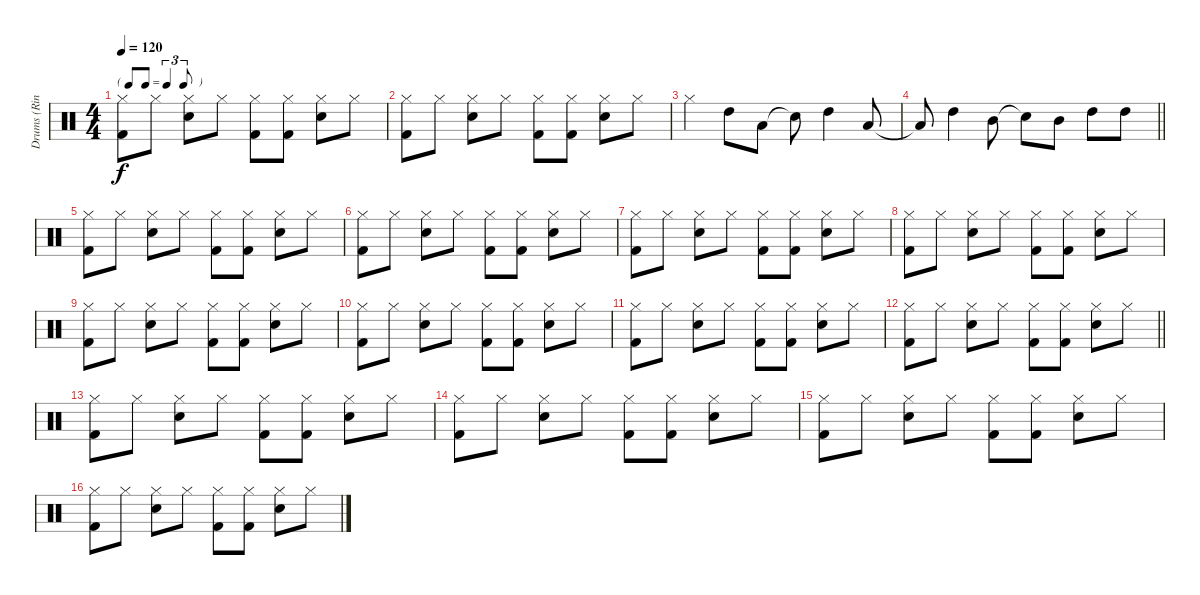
\track ("Drums (Ringo Starr)" "Drums (Rin") {instrument percussion}
\staff {score}
\articulation defaults
\ts (4 4)
\tf triplet8th
\tempo 120
\clef neutral
\ks c
("Hi-Hat (closed)" "Kick (hit) 2").8{dy f} "Hi-Hat (closed)".8 ("Hi-Hat (closed)" "Snare (hit) 2").8 "Hi-Hat (closed)".8 ("Hi-Hat (closed)" "Kick (hit) 2").8 ("Hi-Hat (closed)" "Kick (hit) 2").8 ("Hi-Hat (closed)" "Snare (hit) 2").8 "Hi-Hat (closed)".8 |
("Hi-Hat (closed)" "Kick (hit) 2").8 "Hi-Hat (closed)".8 ("Hi-Hat (closed)" "Snare (hit) 2").8 "Hi-Hat (closed)".8 ("Hi-Hat (closed)" "Kick (hit) 2").8 ("Hi-Hat (closed)" "Kick (hit) 2").8 ("Hi-Hat (closed)" "Snare (hit) 2").8 "Hi-Hat (closed)".8 |
"Hi-Hat (closed)".4 "High Tom (hit)".8 "Low Tom (hit)".8 "Snare (hit)"{t}.8 "High Tom (hit)".4 "Low Tom (hit)".8 |
\barLineRight lightlight "Low Tom (hit)"{t}.8 "High Tom (hit)".4 "Mid Tom (hit)".8 "Snare (hit)"{t}.8 "Mid Tom (hit)".8 "High Tom (hit)".8 "High Tom (hit)".8
|
("Hi-Hat (closed)" "Kick (hit) 2").8 "Hi-Hat (closed)".8 ("Hi-Hat (closed)" "Snare (hit) 2").8 "Hi-Hat (closed)".8 ("Hi-Hat (closed)" "Kick (hit) 2").8 ("Hi-Hat (closed)" "Kick (hit) 2").8 ("Hi-Hat (closed)" "Snare (hit) 2").8 "Hi-Hat (closed)".8 |
("Hi-Hat (closed)" "Kick (hit) 2").8 "Hi-Hat (closed)".8 ("Hi-Hat (closed)" "Snare (hit) 2").8 "Hi-Hat (closed)".8 ("Hi-Hat (closed)" "Kick (hit) 2").8 ("Hi-Hat (closed)" "Kick (hit) 2").8 ("Hi-Hat (closed)" "Snare (hit) 2").8 "Hi-Hat (closed)".8 |
("Hi-Hat (closed)" "Kick (hit) 2").8 "Hi-Hat (closed)".8 ("Hi-Hat (closed)" "Snare (hit) 2").8 "Hi-Hat (closed)".8 ("Hi-Hat (closed)" "Kick (hit) 2").8 ("Hi-Hat (closed)" "Kick (hit) 2").8 ("Hi-Hat (closed)" "Snare (hit) 2").8 "Hi-Hat (closed)".8 |
("Hi-Hat (closed)" "Kick (hit) 2").8 "Hi-Hat (closed)".8 ("Hi-Hat (closed)" "Snare (hit) 2").8 "Hi-Hat (closed)".8 ("Hi-Hat (closed)" "Kick (hit) 2").8 ("Hi-Hat (closed)" "Kick (hit) 2").8 ("Hi-Hat (closed)" "Snare (hit) 2").8 "Hi-Hat (closed)".8 |
("Hi-Hat (closed)" "Kick (hit) 2").8 "Hi-Hat (closed)".8 ("Hi-Hat (closed)" "Snare (hit) 2").8 "Hi-Hat (closed)".8 ("Hi-Hat (closed)" "Kick (hit) 2").8 ("Hi-Hat (closed)" "Kick (hit) 2").8 ("Hi-Hat (closed)" "Snare (hit) 2").8 "Hi-Hat (closed)".8 |
("Hi-Hat (closed)" "Kick (hit) 2").8 "Hi-Hat (closed)".8 ("Hi-Hat (closed)" "Snare (hit) 2").8 "Hi-Hat (closed)".8 ("Hi-Hat (closed)" "Kick (hit) 2").8 ("Hi-Hat (closed)" "Kick (hit) 2").8 ("Hi-Hat (closed)" "Snare (hit) 2").8 "Hi-Hat (closed)".8 |
("Hi-Hat (closed)" "Kick (hit) 2").8 "Hi-Hat (closed)".8 ("Hi-Hat (closed)" "Snare (hit) 2").8 "Hi-Hat (closed)".8 ("Hi-Hat (closed)" "Kick (hit) 2").8 ("Hi-Hat (closed)" "Kick (hit) 2").8 ("Hi-Hat (closed)" "Snare (hit) 2").8 "Hi-Hat (closed)".8 |
\barLineRight lightlight
("Hi-Hat (closed)" "Kick (hit) 2").8 "Hi-Hat (closed)".8 ("Hi-Hat (closed)" "Snare (hit) 2").8 "Hi-Hat (closed)".8 ("Hi-Hat (closed)" "Kick (hit) 2").8 ("Hi-Hat (closed)" "Kick (hit) 2").8 ("Hi-Hat (closed)" "Snare (hit) 2").8 "Hi-Hat (closed)".8 |
("Hi-Hat (closed)" "Kick (hit) 2").8 "Hi-Hat (closed)".8 ("Hi-Hat (closed)" "Snare (hit) 2").8 "Hi-Hat (closed)".8 ("Hi-Hat (closed)" "Kick (hit) 2").8 ("Hi-Hat (closed)" "Kick (hit) 2").8 ("Hi-Hat (closed)" "Snare (hit) 2").8 "Hi-Hat (closed)".8 |
("Hi-Hat (closed)" "Kick (hit) 2").8 "Hi-Hat (closed)".8 ("Hi-Hat (closed)" "Snare (hit) 2").8 "Hi-Hat (closed)".8 ("Hi-Hat (closed)" "Kick (hit) 2").8 ("Hi-Hat (closed)" "Kick (hit) 2").8 ("Hi-Hat (closed)" "Snare (hit) 2").8 "Hi-Hat (closed)".8 |
("Hi-Hat (closed)" "Kick (hit) 2").8 "Hi-Hat (closed)".8 ("Hi-Hat (closed)" "Snare (hit) 2").8 "Hi-Hat (closed)".8 ("Hi-Hat (closed)" "Kick (hit) 2").8 ("Hi-Hat (closed)" "Kick (hit) 2").8 ("Hi-Hat (closed)" "Snare (hit) 2").8 "Hi-Hat (closed)".8 |
("Hi-Hat (closed)" "Kick (hit) 2").8 "Hi-Hat (closed)".8 ("Hi-Hat (closed)" "Snare (hit) 2").8 "Hi-Hat (closed)".8 ("Hi-Hat (closed)" "Kick (hit) 2").8 ("Hi-Hat (closed)" "Kick (hit) 2").8 ("Hi-Hat (closed)" "Snare (hit) 2").8 "Hi-Hat (closed)".8
